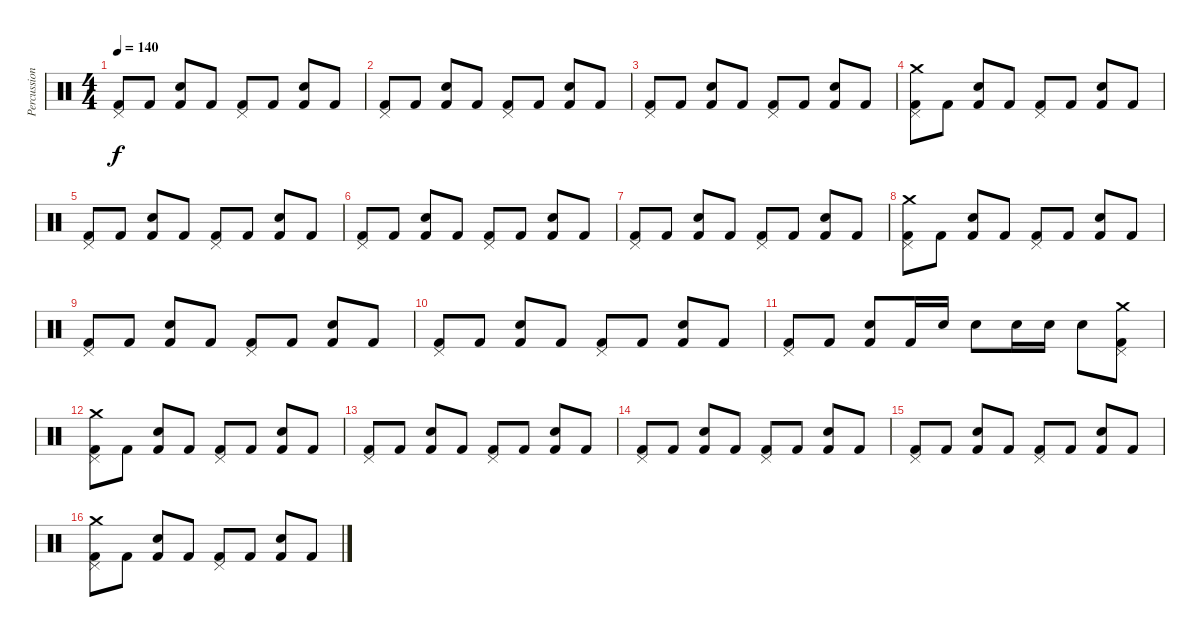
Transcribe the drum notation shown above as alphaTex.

\track ("Percussion" "Percussion") {instrument percussion}
\staff {score}
\articulation defaults
\ts (4 4)
\tempo 140
\clef neutral
\ks c
("Kick (hit) 2" "Pedal Hi-Hat (hit)").8{dy f} "Kick (hit) 2".8 ("Kick (hit) 2" "Electric Snare (hit)").8 "Kick (hit) 2".8 ("Kick (hit) 2" "Pedal Hi-Hat (hit)").8 "Kick (hit) 2".8 ("Kick (hit) 2" "Electric Snare (hit)").8 "Kick (hit) 2".8 |
("Kick (hit) 2" "Pedal Hi-Hat (hit)").8 "Kick (hit) 2".8 ("Kick (hit) 2" "Electric Snare (hit)").8 "Kick (hit) 2".8 ("Kick (hit) 2" "Pedal Hi-Hat (hit)").8 "Kick (hit) 2".8 ("Kick (hit) 2" "Electric Snare (hit)").8 "Kick (hit) 2".8 |
("Kick (hit) 2" "Pedal Hi-Hat (hit)").8 "Kick (hit) 2".8 ("Kick (hit) 2" "Electric Snare (hit)").8 "Kick (hit) 2".8 ("Kick (hit) 2" "Pedal Hi-Hat (hit)").8 "Kick (hit) 2".8 ("Kick (hit) 2" "Electric Snare (hit)").8 "Kick (hit) 2".8 |
("Kick (hit) 2" "Pedal Hi-Hat (hit)" "Crash medium (hit)").8 "Kick (hit) 2".8 ("Kick (hit) 2" "Electric Snare (hit)").8 "Kick (hit) 2".8 ("Kick (hit) 2" "Pedal Hi-Hat (hit)").8 "Kick (hit) 2".8 ("Kick (hit) 2" "Electric Snare (hit)").8 "Kick (hit) 2".8 |
("Kick (hit) 2" "Pedal Hi-Hat (hit)").8 "Kick (hit) 2".8 ("Kick (hit) 2" "Electric Snare (hit)").8 "Kick (hit) 2".8 ("Kick (hit) 2" "Pedal Hi-Hat (hit)").8 "Kick (hit) 2".8 ("Kick (hit) 2" "Electric Snare (hit)").8 "Kick (hit) 2".8 |
("Kick (hit) 2" "Pedal Hi-Hat (hit)").8 "Kick (hit) 2".8 ("Kick (hit) 2" "Electric Snare (hit)").8 "Kick (hit) 2".8 ("Kick (hit) 2" "Pedal Hi-Hat (hit)").8 "Kick (hit) 2".8 ("Kick (hit) 2" "Electric Snare (hit)").8 "Kick (hit) 2".8 |
("Kick (hit) 2" "Pedal Hi-Hat (hit)").8 "Kick (hit) 2".8 ("Kick (hit) 2" "Electric Snare (hit)").8 "Kick (hit) 2".8 ("Kick (hit) 2" "Pedal Hi-Hat (hit)").8 "Kick (hit) 2".8 ("Kick (hit) 2" "Electric Snare (hit)").8 "Kick (hit) 2".8 |
("Kick (hit) 2" "Pedal Hi-Hat (hit)" "Crash medium (hit)").8 "Kick (hit) 2".8 ("Kick (hit) 2" "Electric Snare (hit)").8 "Kick (hit) 2".8 ("Kick (hit) 2" "Pedal Hi-Hat (hit)").8 "Kick (hit) 2".8 ("Kick (hit) 2" "Electric Snare (hit)").8 "Kick (hit) 2".8 |
("Kick (hit) 2" "Pedal Hi-Hat (hit)").8 "Kick (hit) 2".8 ("Kick (hit) 2" "Electric Snare (hit)").8 "Kick (hit) 2".8 ("Kick (hit) 2" "Pedal Hi-Hat (hit)").8 "Kick (hit) 2".8 ("Kick (hit) 2" "Electric Snare (hit)").8 "Kick (hit) 2".8 |
("Kick (hit) 2" "Pedal Hi-Hat (hit)").8 "Kick (hit) 2".8 ("Kick (hit) 2" "Electric Snare (hit)").8 "Kick (hit) 2".8 ("Kick (hit) 2" "Pedal Hi-Hat (hit)").8 "Kick (hit) 2".8 ("Kick (hit) 2" "Electric Snare (hit)").8 "Kick (hit) 2".8 |
("Kick (hit) 2" "Pedal Hi-Hat (hit)").8 "Kick (hit) 2".8 ("Kick (hit) 2" "Electric Snare (hit)").8 "Kick (hit) 2".16 "Electric Snare (hit)".16 "Electric Snare (hit)".8 "Electric Snare (hit)".16 "Electric Snare (hit)".16 "Electric Snare (hit)".8 ("Kick (hit) 2" "Pedal Hi-Hat (hit)" "Crash medium (hit)").8 |
("Kick (hit) 2" "Pedal Hi-Hat (hit)" "Crash medium (hit)").8 "Kick (hit) 2".8 ("Kick (hit) 2" "Electric Snare (hit)").8 "Kick (hit) 2".8 ("Kick (hit) 2" "Pedal Hi-Hat (hit)").8 "Kick (hit) 2".8 ("Kick (hit) 2" "Electric Snare (hit)").8 "Kick (hit) 2".8 |
("Kick (hit) 2" "Pedal Hi-Hat (hit)").8 "Kick (hit) 2".8 ("Kick (hit) 2" "Electric Snare (hit)").8 "Kick (hit) 2".8 ("Kick (hit) 2" "Pedal Hi-Hat (hit)").8 "Kick (hit) 2".8 ("Kick (hit) 2" "Electric Snare (hit)").8 "Kick (hit) 2".8 |
("Kick (hit) 2" "Pedal Hi-Hat (hit)").8 "Kick (hit) 2".8 ("Kick (hit) 2" "Electric Snare (hit)").8 "Kick (hit) 2".8 ("Kick (hit) 2" "Pedal Hi-Hat (hit)").8 "Kick (hit) 2".8 ("Kick (hit) 2" "Electric Snare (hit)").8 "Kick (hit) 2".8 |
("Kick (hit) 2" "Pedal Hi-Hat (hit)").8 "Kick (hit) 2".8 ("Kick (hit) 2" "Electric Snare (hit)").8 "Kick (hit) 2".8 ("Kick (hit) 2" "Pedal Hi-Hat (hit)").8 "Kick (hit) 2".8 ("Kick (hit) 2" "Electric Snare (hit)").8 "Kick (hit) 2".8 |
("Kick (hit) 2" "Pedal Hi-Hat (hit)" "Crash medium (hit)").8 "Kick (hit) 2".8 ("Kick (hit) 2" "Electric Snare (hit)").8 "Kick (hit) 2".8 ("Kick (hit) 2" "Pedal Hi-Hat (hit)").8 "Kick (hit) 2".8 ("Kick (hit) 2" "Electric Snare (hit)").8 "Kick (hit) 2".8
